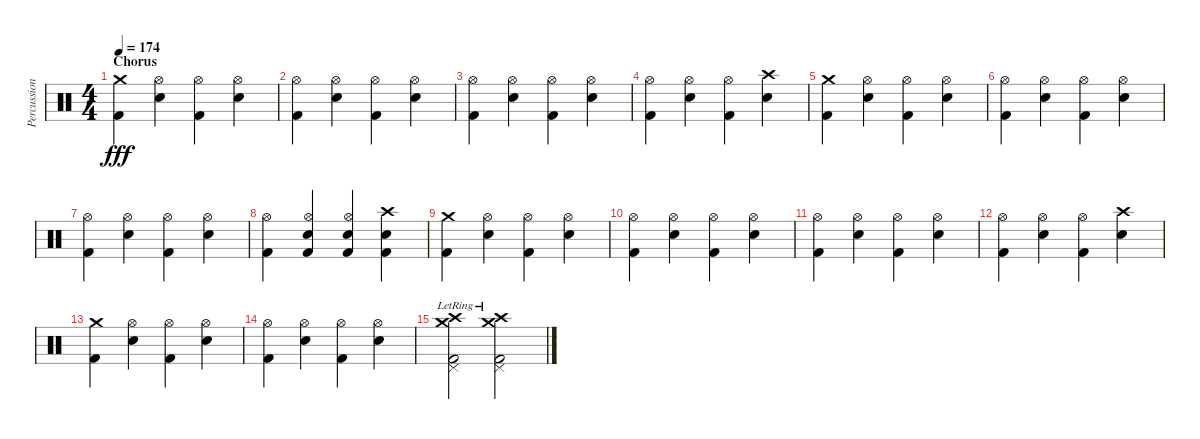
\track ("Percussion" "Percussion") {instrument percussion}
\staff {score}
\articulation defaults
\ts (4 4)
\section ("" "Chorus")
\tempo 174
\clef neutral
\ks c
("Crash medium (hit)" "Kick (hit) 2").4{dy fff} ("Hi-Hat (open)" "Electric Snare (hit)").4 ("Hi-Hat (open)" "Kick (hit) 2").4 ("Hi-Hat (open)" "Electric Snare (hit)").4 |
("Hi-Hat (open)" "Kick (hit) 2").4 ("Hi-Hat (open)" "Electric Snare (hit)").4 ("Hi-Hat (open)" "Kick (hit) 2").4 ("Hi-Hat (open)" "Electric Snare (hit)").4 |
("Hi-Hat (open)" "Kick (hit) 2").4 ("Hi-Hat (open)" "Electric Snare (hit)").4 ("Hi-Hat (open)" "Kick (hit) 2").4 ("Hi-Hat (open)" "Electric Snare (hit)").4 |
("Hi-Hat (open)" "Kick (hit) 2").4 ("Hi-Hat (open)" "Electric Snare (hit)").4 ("Hi-Hat (open)" "Kick (hit) 2").4 ("Crash high (hit)" "Electric Snare (hit)").4 |
("Crash medium (hit)" "Kick (hit) 2").4 ("Hi-Hat (open)" "Electric Snare (hit)").4 ("Hi-Hat (open)" "Kick (hit) 2").4 ("Hi-Hat (open)" "Electric Snare (hit)").4 |
("Hi-Hat (open)" "Kick (hit) 2").4 ("Hi-Hat (open)" "Electric Snare (hit)").4 ("Hi-Hat (open)" "Kick (hit) 2").4 ("Hi-Hat (open)" "Electric Snare (hit)").4 |
("Hi-Hat (open)" "Kick (hit) 2").4 ("Hi-Hat (open)" "Electric Snare (hit)").4 ("Hi-Hat (open)" "Kick (hit) 2").4 ("Hi-Hat (open)" "Electric Snare (hit)").4 |
("Hi-Hat (open)" "Kick (hit) 2").4 ("Hi-Hat (open)" "Electric Snare (hit)" "Kick (hit) 2").4 ("Hi-Hat (open)" "Electric Snare (hit)" "Kick (hit) 2").4 ("Crash high (hit)" "Electric Snare (hit)" "Kick (hit) 2").4 |
("Crash medium (hit)" "Kick (hit) 2").4 ("Hi-Hat (open)" "Electric Snare (hit)").4 ("Hi-Hat (open)" "Kick (hit) 2").4 ("Hi-Hat (open)" "Electric Snare (hit)").4 |
("Hi-Hat (open)" "Kick (hit) 2").4 ("Hi-Hat (open)" "Electric Snare (hit)").4 ("Hi-Hat (open)" "Kick (hit) 2").4 ("Hi-Hat (open)" "Electric Snare (hit)").4 |
("Hi-Hat (open)" "Kick (hit) 2").4 ("Hi-Hat (open)" "Electric Snare (hit)").4 ("Hi-Hat (open)" "Kick (hit) 2").4 ("Hi-Hat (open)" "Electric Snare (hit)").4 |
("Hi-Hat (open)" "Kick (hit) 2").4 ("Hi-Hat (open)" "Electric Snare (hit)").4 ("Hi-Hat (open)" "Kick (hit) 2").4 ("Crash high (hit)" "Electric Snare (hit)").4 |
("Crash medium (hit)" "Kick (hit) 2").4 ("Hi-Hat (open)" "Electric Snare (hit)").4 ("Hi-Hat (open)" "Kick (hit) 2").4 ("Hi-Hat (open)" "Electric Snare (hit)").4 |
("Hi-Hat (open)" "Kick (hit) 2").4 ("Hi-Hat (open)" "Electric Snare (hit)").4 ("Hi-Hat (open)" "Kick (hit) 2").4 ("Hi-Hat (open)" "Electric Snare (hit)").4 |
("Crash high (hit)"{lr} "Crash medium (hit)"{lr} "Pedal Hi-Hat (hit)"{lr} "Kick (hit) 2"{lr}).2 ("Crash high (hit)"{lr} "Crash medium (hit)"{lr} "Pedal Hi-Hat (hit)"{lr} "Kick (hit) 2"{lr}).2
